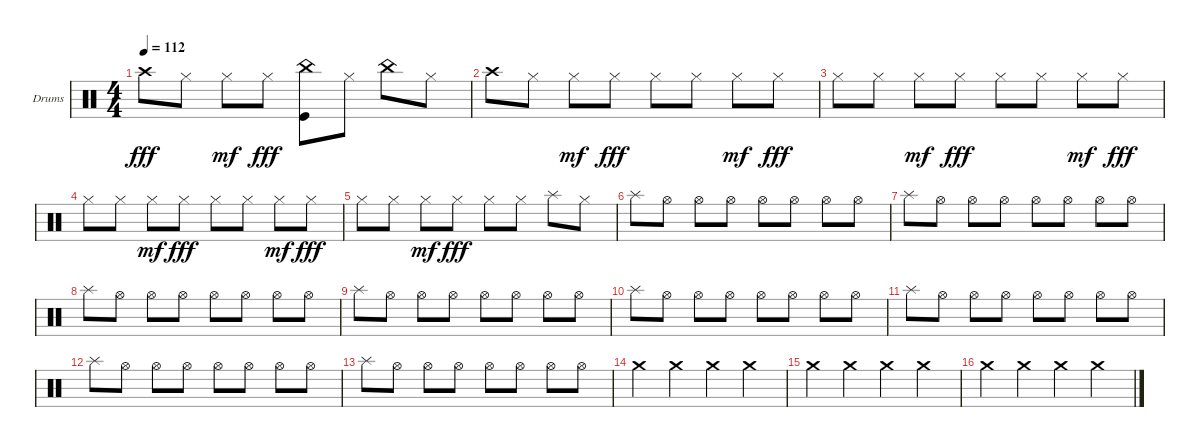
\defaultSystemsLayout 4
\bracketExtendMode groupsimilarinstruments
\firstSystemTrackNameOrientation horizontal
\otherSystemsTrackNameOrientation horizontal
\track ("Пашок" "Drums") {instrument percussion}
\staff {score}
\articulation defaults
\ts (4 4)
\tempo 112
\clef neutral
\ks c "Crash high (hit)".8{dy fff} "Hi-Hat (closed)".8 "Hi-Hat (closed)".8{dy mf} "Hi-Hat (closed)".8{dy fff}
("China (hit)" "Kick (hit)").8 "Hi-Hat (closed)".8 "China (hit)".8 "Hi-Hat (closed)".8 |
"Crash high (hit)".8 "Hi-Hat (closed)".8 "Hi-Hat (closed)".8{dy mf} "Hi-Hat (closed)".8{dy fff} "Hi-Hat (closed)".8 "Hi-Hat (closed)".8 "Hi-Hat (closed)".8{dy mf} "Hi-Hat (closed)".8{dy fff} |
"Hi-Hat (closed)".8 "Hi-Hat (closed)".8 "Hi-Hat (closed)".8{dy mf} "Hi-Hat (closed)".8{dy fff} "Hi-Hat (closed)".8 "Hi-Hat (closed)".8 "Hi-Hat (closed)".8{dy mf} "Hi-Hat (closed)".8{dy fff} |
"Hi-Hat (closed)".8 "Hi-Hat (closed)".8 "Hi-Hat (closed)".8{dy mf} "Hi-Hat (closed)".8{dy fff} "Hi-Hat (closed)".8 "Hi-Hat (closed)".8 "Hi-Hat (closed)".8{dy mf} "Hi-Hat (closed)".8{dy fff} |
"Hi-Hat (closed)".8 "Hi-Hat (closed)".8 "Hi-Hat (closed)".8{dy mf} "Hi-Hat (closed)".8{dy fff} "Hi-Hat (closed)".8 "Hi-Hat (closed)".8 "Splash (hit)".8 "Hi-Hat (closed)".8 |
"Splash (hit)".8 "Hi-Hat (open)".8 "Hi-Hat (open)".8 "Hi-Hat (open)".8 "Hi-Hat (open)".8 "Hi-Hat (open)".8 "Hi-Hat (open)".8 "Hi-Hat (open)".8 |
"Splash (hit)".8 "Hi-Hat (open)".8 "Hi-Hat (open)".8 "Hi-Hat (open)".8 "Hi-Hat (open)".8 "Hi-Hat (open)".8 "Hi-Hat (open)".8 "Hi-Hat (open)".8 |
"Splash (hit)".8 "Hi-Hat (open)".8 "Hi-Hat (open)".8 "Hi-Hat (open)".8 "Hi-Hat (open)".8 "Hi-Hat (open)".8 "Hi-Hat (open)".8 "Hi-Hat (open)".8 |
"Splash (hit)".8 "Hi-Hat (open)".8 "Hi-Hat (open)".8 "Hi-Hat (open)".8 "Hi-Hat (open)".8 "Hi-Hat (open)".8 "Hi-Hat (open)".8 "Hi-Hat (open)".8 |
"Splash (hit)".8 "Hi-Hat (open)".8 "Hi-Hat (open)".8 "Hi-Hat (open)".8 "Hi-Hat (open)".8 "Hi-Hat (open)".8 "Hi-Hat (open)".8 "Hi-Hat (open)".8 |
"Splash (hit)".8 "Hi-Hat (open)".8 "Hi-Hat (open)".8 "Hi-Hat (open)".8 "Hi-Hat (open)".8 "Hi-Hat (open)".8 "Hi-Hat (open)".8 "Hi-Hat (open)".8 |
"Splash (hit)".8 "Hi-Hat (open)".8 "Hi-Hat (open)".8 "Hi-Hat (open)".8 "Hi-Hat (open)".8 "Hi-Hat (open)".8 "Hi-Hat (open)".8 "Hi-Hat (open)".8 |
"Splash (hit)".8 "Hi-Hat (open)".8 "Hi-Hat (open)".8 "Hi-Hat (open)".8 "Hi-Hat (open)".8 "Hi-Hat (open)".8 "Hi-Hat (open)".8 "Hi-Hat (open)".8 |
"Crash medium (hit)".4 "Crash medium (hit)".4 "Crash medium (hit)".4 "Crash medium (hit)".4 |
"Crash medium (hit)".4 "Crash medium (hit)".4 "Crash medium (hit)".4 "Crash medium (hit)".4 |
"Crash medium (hit)".4 "Crash medium (hit)".4 "Crash medium (hit)".4 "Crash medium (hit)".4
